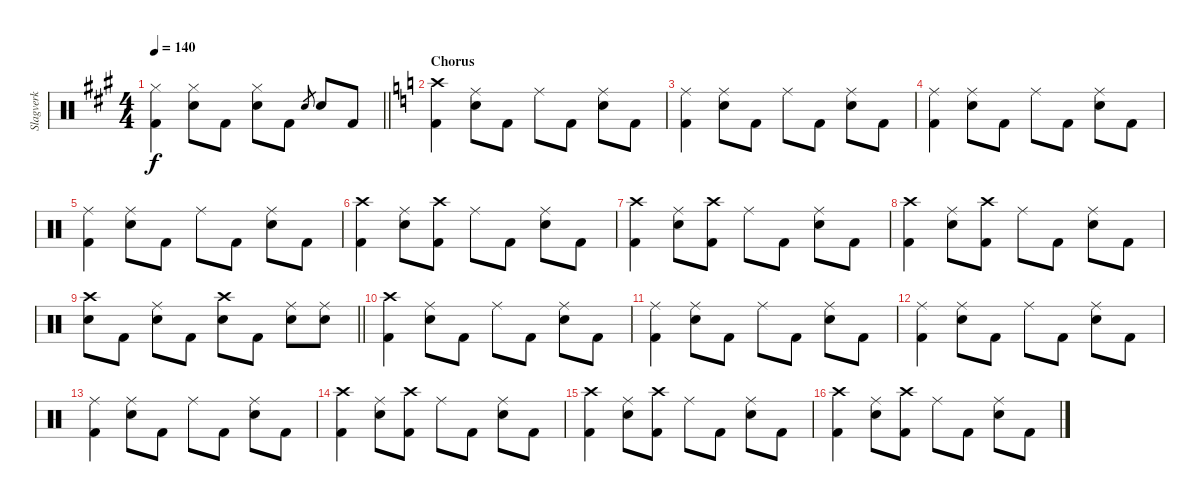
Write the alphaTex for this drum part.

\track ("Slagverk" "Slagverk") {instrument percussion}
\staff {score}
\articulation defaults
\ts (4 4)
\tempo 140
\clef neutral
\barLineRight lightlight
\ks a
("Hi-Hat (closed)" "Kick (hit) 2").4{dy f} ("Hi-Hat (closed)" "Electric Snare (hit)").8 "Kick (hit) 2".8 ("Hi-Hat (closed)" "Electric Snare (hit)").8 "Kick (hit) 2".8 "Electric Snare (hit)".8{gr} "Electric Snare (hit)".8 "Kick (hit) 2".8 |
\section ("" "Chorus")
\ks c
("Crash high (hit)" "Kick (hit) 2").4 ("Ride (middle)" "Electric Snare (hit)").8 "Kick (hit) 2".8 "Ride (middle)".8 "Kick (hit) 2".8 ("Ride (middle)" "Electric Snare (hit)").8 "Kick (hit) 2".8 |
("Ride (middle)" "Kick (hit) 2").4 ("Ride (middle)" "Electric Snare (hit)").8 "Kick (hit) 2".8 "Ride (middle)".8 "Kick (hit) 2".8 ("Ride (middle)" "Electric Snare (hit)").8 "Kick (hit) 2".8 |
("Ride (middle)" "Kick (hit) 2").4 ("Ride (middle)" "Electric Snare (hit)").8 "Kick (hit) 2".8 "Ride (middle)".8 "Kick (hit) 2".8 ("Ride (middle)" "Electric Snare (hit)").8 "Kick (hit) 2".8 |
("Ride (middle)" "Kick (hit) 2").4 ("Ride (middle)" "Electric Snare (hit)").8 "Kick (hit) 2".8 "Ride (middle)".8 "Kick (hit) 2".8 ("Ride (middle)" "Electric Snare (hit)").8 "Kick (hit) 2".8 |
("Crash high (hit)" "Kick (hit) 2").4 ("Ride (middle)" "Electric Snare (hit)").8 ("Crash high (hit)" "Kick (hit) 2").8 "Ride (middle)".8 "Kick (hit) 2".8 ("Ride (middle)" "Electric Snare (hit)").8 "Kick (hit) 2".8 |
("Crash high (hit)" "Kick (hit) 2").4 ("Ride (middle)" "Electric Snare (hit)").8 ("Crash high (hit)" "Kick (hit) 2").8 "Ride (middle)".8 "Kick (hit) 2".8 ("Ride (middle)" "Electric Snare (hit)").8 "Kick (hit) 2".8 |
("Crash high (hit)" "Kick (hit) 2").4 ("Ride (middle)" "Electric Snare (hit)").8 ("Crash high (hit)" "Kick (hit) 2").8 "Ride (middle)".8 "Kick (hit) 2".8 ("Ride (middle)" "Electric Snare (hit)").8 "Kick (hit) 2".8 |
\barLineRight lightlight
("Crash high (hit)" "Electric Snare (hit)").8 "Kick (hit) 2".8 ("Ride (middle)" "Electric Snare (hit)").8 "Kick (hit) 2".8 ("Crash high (hit)" "Electric Snare (hit)").8 "Kick (hit) 2".8 ("Ride (middle)" "Electric Snare (hit)").8 ("Ride (middle)" "Electric Snare (hit)").8 |
("Crash high (hit)" "Kick (hit) 2").4 ("Ride (middle)" "Electric Snare (hit)").8 "Kick (hit) 2".8 "Ride (middle)".8 "Kick (hit) 2".8 ("Ride (middle)" "Electric Snare (hit)").8 "Kick (hit) 2".8 |
("Ride (middle)" "Kick (hit) 2").4 ("Ride (middle)" "Electric Snare (hit)").8 "Kick (hit) 2".8 "Ride (middle)".8 "Kick (hit) 2".8 ("Ride (middle)" "Electric Snare (hit)").8 "Kick (hit) 2".8 |
("Ride (middle)" "Kick (hit) 2").4 ("Ride (middle)" "Electric Snare (hit)").8 "Kick (hit) 2".8 "Ride (middle)".8 "Kick (hit) 2".8 ("Ride (middle)" "Electric Snare (hit)").8 "Kick (hit) 2".8 |
("Ride (middle)" "Kick (hit) 2").4 ("Ride (middle)" "Electric Snare (hit)").8 "Kick (hit) 2".8 "Ride (middle)".8 "Kick (hit) 2".8 ("Ride (middle)" "Electric Snare (hit)").8 "Kick (hit) 2".8 |
("Crash high (hit)" "Kick (hit) 2").4 ("Ride (middle)" "Electric Snare (hit)").8 ("Crash high (hit)" "Kick (hit) 2").8 "Ride (middle)".8 "Kick (hit) 2".8 ("Ride (middle)" "Electric Snare (hit)").8 "Kick (hit) 2".8 |
("Crash high (hit)" "Kick (hit) 2").4 ("Ride (middle)" "Electric Snare (hit)").8 ("Crash high (hit)" "Kick (hit) 2").8 "Ride (middle)".8 "Kick (hit) 2".8 ("Ride (middle)" "Electric Snare (hit)").8 "Kick (hit) 2".8 |
("Crash high (hit)" "Kick (hit) 2").4 ("Ride (middle)" "Electric Snare (hit)").8 ("Crash high (hit)" "Kick (hit) 2").8 "Ride (middle)".8 "Kick (hit) 2".8 ("Ride (middle)" "Electric Snare (hit)").8 "Kick (hit) 2".8
